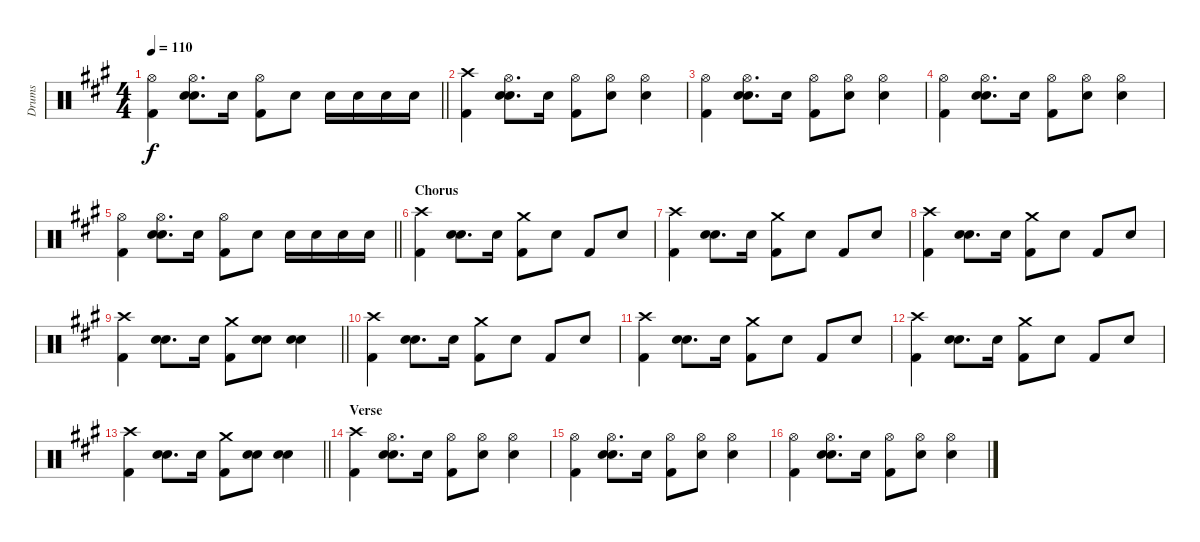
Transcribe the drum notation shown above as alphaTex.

\track ("Drums" "Drums") {instrument percussion}
\staff {score}
\articulation defaults
\ts (4 4)
\tempo 110
\clef neutral
\barLineRight lightlight
\ks f#minor
("Hi-Hat (open)" "Kick (hit) 2").4{dy f} ("Hi-Hat (open)" "Snare (hit) 2" "Snare (hit) 2").8{d} "Snare (hit) 2".16 ("Hi-Hat (open)" "Kick (hit) 2").8 "Snare (hit) 2".8 "Snare (hit) 2".16 "Snare (hit) 2".16 "Snare (hit) 2".16 "Snare (hit) 2".16 |
\section ("" "")
("Crash high (hit)" "Kick (hit) 2").4 ("Hi-Hat (open)" "Snare (hit) 2" "Snare (hit) 2").8{d} "Snare (hit) 2".16 ("Hi-Hat (open)" "Kick (hit) 2").8 ("Hi-Hat (open)" "Snare (hit) 2").8 ("Hi-Hat (open)" "Snare (hit) 2").4 |
("Hi-Hat (open)" "Kick (hit) 2").4 ("Hi-Hat (open)" "Snare (hit) 2" "Snare (hit) 2").8{d} "Snare (hit) 2".16 ("Hi-Hat (open)" "Kick (hit) 2").8 ("Hi-Hat (open)" "Snare (hit) 2").8 ("Hi-Hat (open)" "Snare (hit) 2").4 |
("Hi-Hat (open)" "Kick (hit) 2").4 ("Hi-Hat (open)" "Snare (hit) 2" "Snare (hit) 2").8{d} "Snare (hit) 2".16 ("Hi-Hat (open)" "Kick (hit) 2").8 ("Hi-Hat (open)" "Snare (hit) 2").8 ("Hi-Hat (open)" "Snare (hit) 2").4 |
\barLineRight lightlight
("Hi-Hat (open)" "Kick (hit) 2").4 ("Hi-Hat (open)" "Snare (hit) 2" "Snare (hit) 2").8{d} "Snare (hit) 2".16 ("Hi-Hat (open)" "Kick (hit) 2").8 "Snare (hit) 2".8 "Snare (hit) 2".16 "Snare (hit) 2".16 "Snare (hit) 2".16 "Snare (hit) 2".16 |
\section ("" "Chorus")
("Crash high (hit)" "Kick (hit) 2").4 ("Snare (hit) 2" "Snare (hit) 2").8{d} "Snare (hit) 2".16 ("Crash medium (hit)" "Kick (hit) 2").8 "Snare (hit) 2".8 "Kick (hit) 2".8 "Snare (hit) 2".8 |
("Crash high (hit)" "Kick (hit) 2").4 ("Snare (hit) 2" "Snare (hit) 2").8{d} "Snare (hit) 2".16 ("Crash medium (hit)" "Kick (hit) 2").8 "Snare (hit) 2".8 "Kick (hit) 2".8 "Snare (hit) 2".8 |
("Crash high (hit)" "Kick (hit) 2").4 ("Snare (hit) 2" "Snare (hit) 2").8{d} "Snare (hit) 2".16 ("Crash medium (hit)" "Kick (hit) 2").8 "Snare (hit) 2".8 "Kick (hit) 2".8 "Snare (hit) 2".8 |
\barLineRight lightlight
("Crash high (hit)" "Kick (hit) 2").4 ("Snare (hit) 2" "Snare (hit) 2").8{d} "Snare (hit) 2".16 ("Crash medium (hit)" "Kick (hit) 2").8 ("Snare (hit) 2" "Snare (hit) 2").8 ("Snare (hit) 2" "Snare (hit) 2").4 |
\section ("" "")
("Crash high (hit)" "Kick (hit) 2").4 ("Snare (hit) 2" "Snare (hit) 2").8{d} "Snare (hit) 2".16 ("Crash medium (hit)" "Kick (hit) 2").8 "Snare (hit) 2".8 "Kick (hit) 2".8 "Snare (hit) 2".8 |
("Crash high (hit)" "Kick (hit) 2").4 ("Snare (hit) 2" "Snare (hit) 2").8{d} "Snare (hit) 2".16 ("Crash medium (hit)" "Kick (hit) 2").8 "Snare (hit) 2".8 "Kick (hit) 2".8 "Snare (hit) 2".8 |
("Crash high (hit)" "Kick (hit) 2").4 ("Snare (hit) 2" "Snare (hit) 2").8{d} "Snare (hit) 2".16 ("Crash medium (hit)" "Kick (hit) 2").8 "Snare (hit) 2".8 "Kick (hit) 2".8 "Snare (hit) 2".8 |
\barLineRight lightlight
("Crash high (hit)" "Kick (hit) 2").4 ("Snare (hit) 2" "Snare (hit) 2").8{d} "Snare (hit) 2".16 ("Crash medium (hit)" "Kick (hit) 2").8 ("Snare (hit) 2" "Snare (hit) 2").8 ("Snare (hit) 2" "Snare (hit) 2").4 |
\section ("" "Verse ")
("Crash high (hit)" "Kick (hit) 2").4 ("Hi-Hat (open)" "Snare (hit) 2" "Snare (hit) 2").8{d} "Snare (hit) 2".16 ("Hi-Hat (open)" "Kick (hit) 2").8 ("Hi-Hat (open)" "Snare (hit) 2").8 ("Hi-Hat (open)" "Snare (hit) 2").4 |
("Hi-Hat (open)" "Kick (hit) 2").4 ("Hi-Hat (open)" "Snare (hit) 2" "Snare (hit) 2").8{d} "Snare (hit) 2".16 ("Hi-Hat (open)" "Kick (hit) 2").8 ("Hi-Hat (open)" "Snare (hit) 2").8 ("Hi-Hat (open)" "Snare (hit) 2").4 |
("Hi-Hat (open)" "Kick (hit) 2").4 ("Hi-Hat (open)" "Snare (hit) 2" "Snare (hit) 2").8{d} "Snare (hit) 2".16 ("Hi-Hat (open)" "Kick (hit) 2").8 ("Hi-Hat (open)" "Snare (hit) 2").8 ("Hi-Hat (open)" "Snare (hit) 2").4
